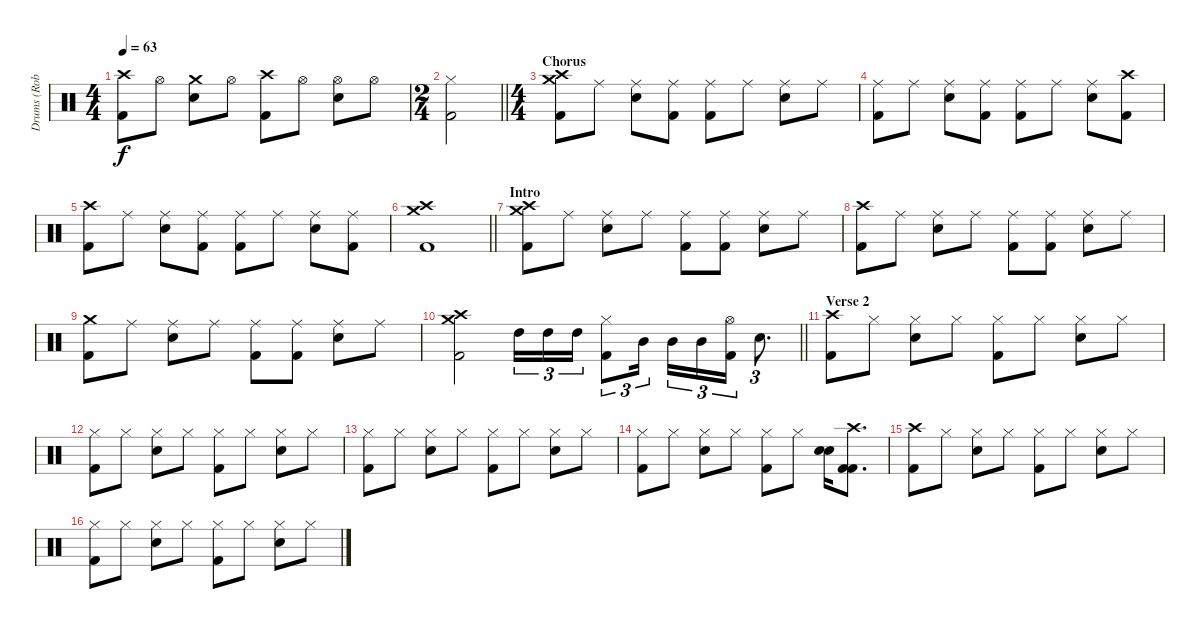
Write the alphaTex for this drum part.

\track ("Drums (Rob Affuso)" "Drums (Rob") {instrument percussion}
\staff {score}
\articulation defaults
\ts (4 4)
\tempo 63
\clef neutral
\ks c
("Crash high (hit)" "Kick (hit) 2").8{dy f} "Hi-Hat (open)".8 ("Crash medium (hit)" "Electric Snare (hit)").8 "Hi-Hat (open)".8 ("Crash high (hit)" "Kick (hit) 2").8 "Hi-Hat (open)".8 ("Hi-Hat (open)" "Electric Snare (hit)").8 "Hi-Hat (open)".8 |
\ts (2 4)
\barLineRight lightlight
("Hi-Hat (closed)" "Kick (hit) 2").2 |
\ts (4 4)
\section ("" "Chorus")
("Crash medium (hit)" "Crash high (hit)" "Kick (hit) 2").8 "Ride (middle)".8 ("Ride (middle)" "Electric Snare (hit)").8 ("Ride (middle)" "Kick (hit) 2").8 ("Ride (middle)" "Kick (hit) 2").8 "Ride (middle)".8 ("Ride (middle)" "Electric Snare (hit)").8 "Ride (middle)".8 |
("Ride (middle)" "Kick (hit) 2").8 "Ride (middle)".8 ("Ride (middle)" "Electric Snare (hit)").8 ("Ride (middle)" "Kick (hit) 2").8 ("Ride (middle)" "Kick (hit) 2").8 "Ride (middle)".8 ("Ride (middle)" "Electric Snare (hit)").8 ("Crash high (hit)" "Kick (hit) 2").8 |
("Crash high (hit)" "Kick (hit) 2").8 "Ride (middle)".8 ("Ride (middle)" "Electric Snare (hit)").8 ("Ride (middle)" "Kick (hit) 2").8 ("Ride (middle)" "Kick (hit) 2").8 "Ride (middle)".8 ("Ride (middle)" "Electric Snare (hit)").8 ("Ride (middle)" "Kick (hit) 2").8 |
\barLineRight lightlight
("Crash medium (hit)" "Crash high (hit)" "Kick (hit) 2").1 |
\section ("" "Intro")
("Crash medium (hit)" "Crash high (hit)" "Kick (hit) 2").8 "Ride (middle)".8 ("Ride (middle)" "Electric Snare (hit)").8 "Ride (middle)".8 ("Ride (middle)" "Kick (hit) 2").8 ("Ride (middle)" "Kick (hit) 2").8 ("Ride (middle)" "Electric Snare (hit)").8 "Ride (middle)".8 |
("Crash high (hit)" "Kick (hit) 2").8 "Ride (middle)".8 ("Ride (middle)" "Electric Snare (hit)").8 "Ride (middle)".8 ("Ride (middle)" "Kick (hit) 2").8 ("Ride (middle)" "Kick (hit) 2").8 ("Ride (middle)" "Electric Snare (hit)").8 "Ride (middle)".8 |
("Crash medium (hit)" "Kick (hit) 2").8 "Ride (middle)".8 ("Ride (middle)" "Electric Snare (hit)").8 "Ride (middle)".8 ("Ride (middle)" "Kick (hit) 2").8 ("Ride (middle)" "Kick (hit) 2").8 ("Ride (middle)" "Electric Snare (hit)").8 "Ride (middle)".8 |
\barLineRight lightlight
("Crash medium (hit)" "Crash high (hit)" "Kick (hit) 2").2 "High Tom (hit)".16{tu (3 2)} "High Tom (hit)".16{tu (3 2)} "High Tom (hit)".16{tu (3 2)} ("Hi-Hat (closed)" "Kick (hit) 2").8{tu (3 2)} "Mid Tom (hit)".16{tu (3 2)} "Mid Tom (hit)".16{tu (3 2)} "Mid Tom (hit)".16{tu (3 2)} ("Hi-Hat (open)" "Kick (hit) 2").16{tu (3 2)} "Electric Snare (hit)".8{d tu (3 2)} |
\section ("" "Verse 2")
("Crash high (hit)" "Kick (hit) 2").8 "Hi-Hat (closed)".8 ("Hi-Hat (closed)" "Electric Snare (hit)").8 "Hi-Hat (closed)".8 ("Hi-Hat (closed)" "Kick (hit) 2").8 "Hi-Hat (closed)".8 ("Hi-Hat (closed)" "Electric Snare (hit)").8 "Hi-Hat (closed)".8 |
("Hi-Hat (closed)" "Kick (hit) 2").8 "Hi-Hat (closed)".8 ("Hi-Hat (closed)" "Electric Snare (hit)").8 "Hi-Hat (closed)".8 ("Hi-Hat (closed)" "Kick (hit) 2").8 "Hi-Hat (closed)".8 ("Hi-Hat (closed)" "Electric Snare (hit)").8 "Hi-Hat (closed)".8 |
("Hi-Hat (closed)" "Kick (hit) 2").8 "Hi-Hat (closed)".8 ("Hi-Hat (closed)" "Electric Snare (hit)").8 "Hi-Hat (closed)".8 ("Hi-Hat (closed)" "Kick (hit) 2").8 "Hi-Hat (closed)".8 ("Hi-Hat (closed)" "Electric Snare (hit)").8 "Hi-Hat (closed)".8 |
("Hi-Hat (closed)" "Kick (hit) 2").8 "Hi-Hat (closed)".8 ("Hi-Hat (closed)" "Electric Snare (hit)").8 "Hi-Hat (closed)".8 ("Hi-Hat (closed)" "Kick (hit) 2").8 "Hi-Hat (closed)".8 ("Electric Snare (hit)" "Electric Snare (hit)").16 ("Crash high (hit)" "Kick (hit) 2" "Kick (hit) 2").8{d} |
("Crash high (hit)" "Kick (hit) 2").8 "Hi-Hat (closed)".8 ("Hi-Hat (closed)" "Electric Snare (hit)").8 "Hi-Hat (closed)".8 ("Hi-Hat (closed)" "Kick (hit) 2").8 "Hi-Hat (closed)".8 ("Hi-Hat (closed)" "Electric Snare (hit)").8 "Hi-Hat (closed)".8 |
("Hi-Hat (closed)" "Kick (hit) 2").8 "Hi-Hat (closed)".8 ("Hi-Hat (closed)" "Electric Snare (hit)").8 "Hi-Hat (closed)".8 ("Hi-Hat (closed)" "Kick (hit) 2").8 "Hi-Hat (closed)".8 ("Hi-Hat (closed)" "Electric Snare (hit)").8 "Hi-Hat (closed)".8
